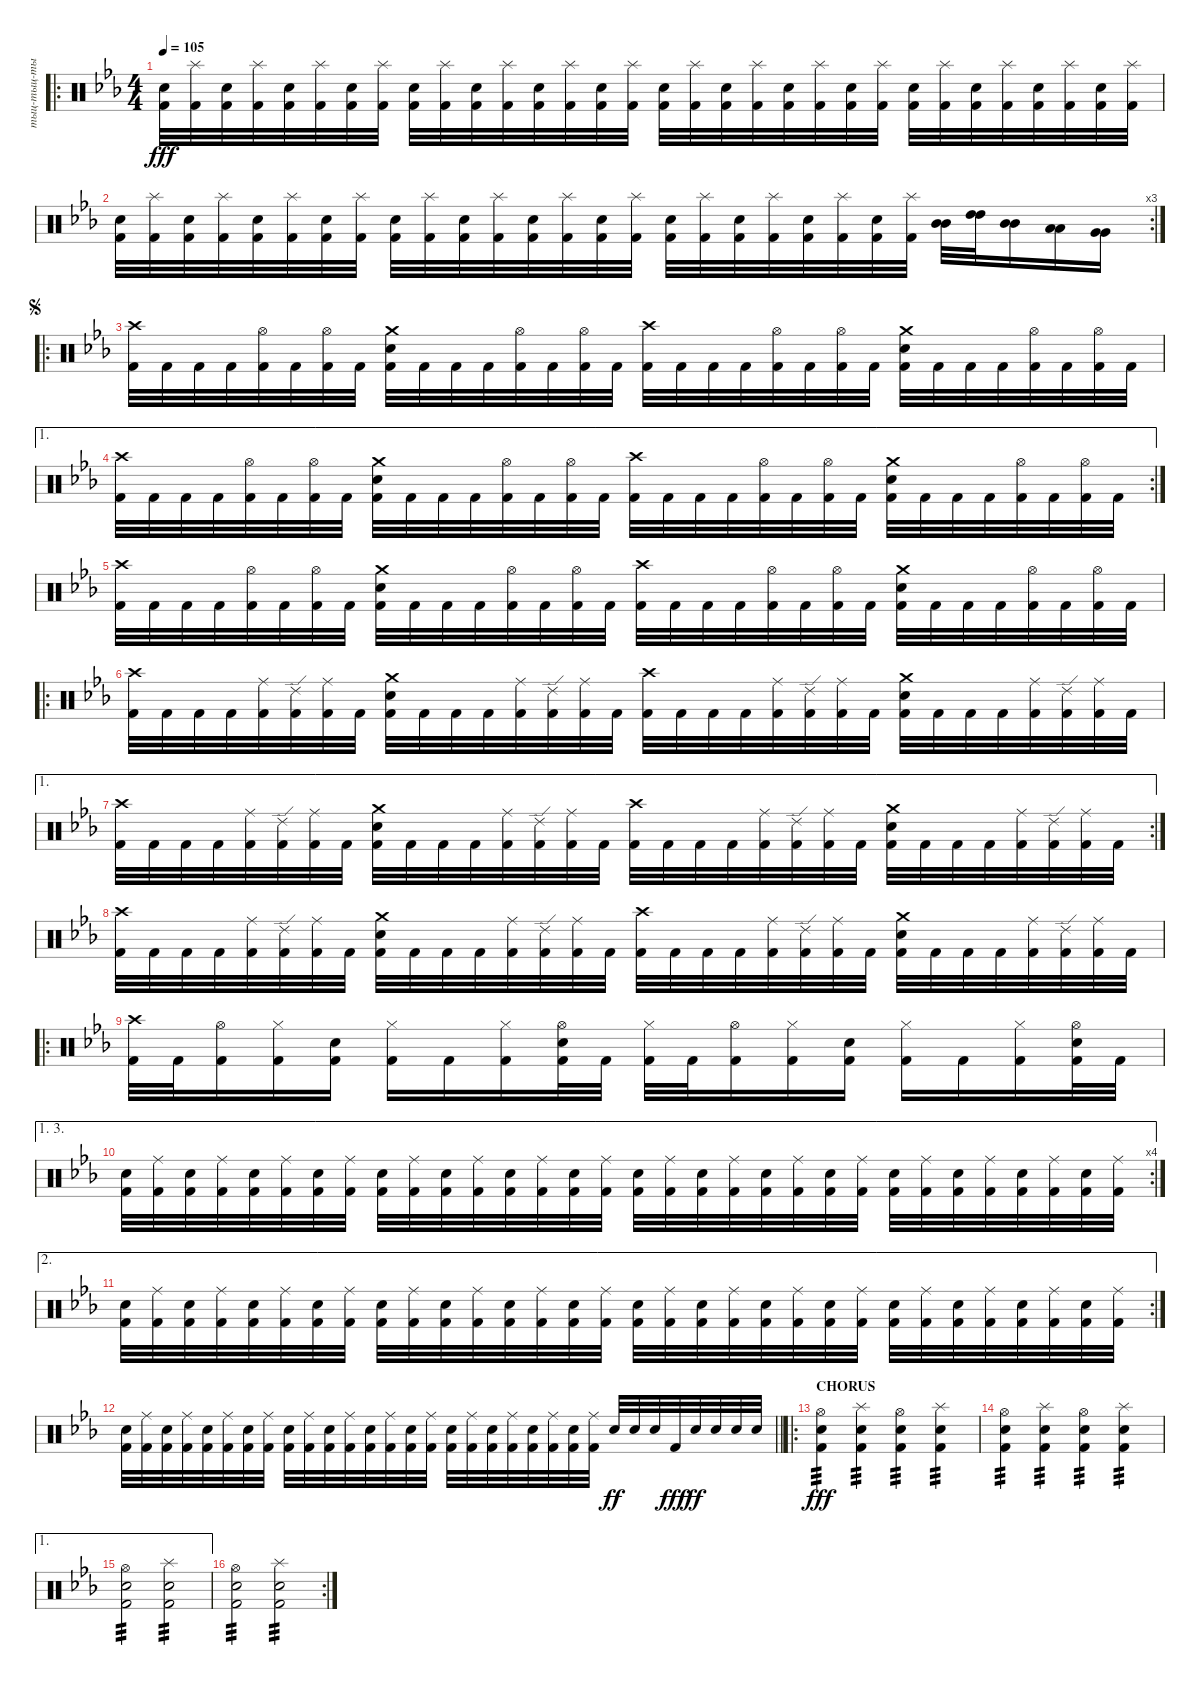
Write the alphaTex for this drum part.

\track ("тыц-тыц-тыц..." "тыц-тыц-ты") {instrument percussion}
\staff
\articulation defaults
\ro
\ts (4 4)
\tempo 105
\clef neutral
\ks cminor
("Electric Snare (hit)" "Kick (hit) 2").32{dy fff} ("Splash (hit)" "Kick (hit) 2").32 ("Electric Snare (hit)" "Kick (hit) 2").32 ("Splash (hit)" "Kick (hit) 2").32 ("Electric Snare (hit)" "Kick (hit) 2").32 ("Splash (hit)" "Kick (hit) 2").32 ("Electric Snare (hit)" "Kick (hit) 2").32 ("Splash (hit)" "Kick (hit) 2").32 ("Electric Snare (hit)" "Kick (hit) 2").32 ("Splash (hit)" "Kick (hit) 2").32 ("Electric Snare (hit)" "Kick (hit) 2").32 ("Splash (hit)" "Kick (hit) 2").32 ("Electric Snare (hit)" "Kick (hit) 2").32 ("Splash (hit)" "Kick (hit) 2").32 ("Electric Snare (hit)" "Kick (hit) 2").32 ("Splash (hit)" "Kick (hit) 2").32 ("Electric Snare (hit)" "Kick (hit) 2").32 ("Splash (hit)" "Kick (hit) 2").32 ("Electric Snare (hit)" "Kick (hit) 2").32 ("Splash (hit)" "Kick (hit) 2").32 ("Electric Snare (hit)" "Kick (hit) 2").32 ("Splash (hit)" "Kick (hit) 2").32 ("Electric Snare (hit)" "Kick (hit) 2").32 ("Splash (hit)" "Kick (hit) 2").32 ("Electric Snare (hit)" "Kick (hit) 2").32 ("Splash (hit)" "Kick (hit) 2").32 ("Electric Snare (hit)" "Kick (hit) 2").32 ("Splash (hit)" "Kick (hit) 2").32 ("Electric Snare (hit)" "Kick (hit) 2").32 ("Splash (hit)" "Kick (hit) 2").32 ("Electric Snare (hit)" "Kick (hit) 2").32 ("Splash (hit)" "Kick (hit) 2").32 |
\rc 3
("Electric Snare (hit)" "Kick (hit) 2").32 ("Splash (hit)" "Kick (hit) 2").32 ("Electric Snare (hit)" "Kick (hit) 2").32 ("Splash (hit)" "Kick (hit) 2").32 ("Electric Snare (hit)" "Kick (hit) 2").32 ("Splash (hit)" "Kick (hit) 2").32 ("Electric Snare (hit)" "Kick (hit) 2").32 ("Splash (hit)" "Kick (hit) 2").32 ("Electric Snare (hit)" "Kick (hit) 2").32 ("Splash (hit)" "Kick (hit) 2").32 ("Electric Snare (hit)" "Kick (hit) 2").32 ("Splash (hit)" "Kick (hit) 2").32 ("Electric Snare (hit)" "Kick (hit) 2").32 ("Splash (hit)" "Kick (hit) 2").32 ("Electric Snare (hit)" "Kick (hit) 2").32 ("Splash (hit)" "Kick (hit) 2").32 ("Electric Snare (hit)" "Kick (hit) 2").32 ("Splash (hit)" "Kick (hit) 2").32 ("Electric Snare (hit)" "Kick (hit) 2").32 ("Splash (hit)" "Kick (hit) 2").32 ("Electric Snare (hit)" "Kick (hit) 2").32 ("Splash (hit)" "Kick (hit) 2").32 ("Electric Snare (hit)" "Kick (hit) 2").32 ("Splash (hit)" "Kick (hit) 2").32 ("Mid Tom (hit)" "Mid Tom (hit)").32 ("High Tom (hit)" "High Tom (hit)").32 ("Mid Tom (hit)" "Mid Tom (hit)").16 ("Low Tom (hit)" "Low Tom (hit)").16 ("Very Low Tom (hit)" "Very Low Tom (hit)").16 |
\ro
\jump segno
("Crash high (hit)" "Kick (hit) 2").32 "Kick (hit) 2".32 "Kick (hit) 2".32 "Kick (hit) 2".32 ("Hi-Hat (open)" "Kick (hit) 2").32 "Kick (hit) 2".32 ("Hi-Hat (open)" "Kick (hit) 2").32 "Kick (hit) 2".32 ("Crash medium (hit)" "Electric Snare (hit)" "Kick (hit) 2").32 "Kick (hit) 2".32 "Kick (hit) 2".32 "Kick (hit) 2".32 ("Hi-Hat (open)" "Kick (hit) 2").32 "Kick (hit) 2".32 ("Hi-Hat (open)" "Kick (hit) 2").32 "Kick (hit) 2".32 ("Crash high (hit)" "Kick (hit) 2").32 "Kick (hit) 2".32 "Kick (hit) 2".32 "Kick (hit) 2".32 ("Hi-Hat (open)" "Kick (hit) 2").32 "Kick (hit) 2".32 ("Hi-Hat (open)" "Kick (hit) 2").32 "Kick (hit) 2".32 ("Crash medium (hit)" "Electric Snare (hit)" "Kick (hit) 2").32 "Kick (hit) 2".32 "Kick (hit) 2".32 "Kick (hit) 2".32 ("Hi-Hat (open)" "Kick (hit) 2").32 "Kick (hit) 2".32 ("Hi-Hat (open)" "Kick (hit) 2").32 "Kick (hit) 2".32 |
\ae 1
\rc 2
("Crash high (hit)" "Kick (hit) 2").32 "Kick (hit) 2".32 "Kick (hit) 2".32 "Kick (hit) 2".32 ("Hi-Hat (open)" "Kick (hit) 2").32 "Kick (hit) 2".32 ("Hi-Hat (open)" "Kick (hit) 2").32 "Kick (hit) 2".32 ("Crash medium (hit)" "Electric Snare (hit)" "Kick (hit) 2").32 "Kick (hit) 2".32 "Kick (hit) 2".32 "Kick (hit) 2".32 ("Hi-Hat (open)" "Kick (hit) 2").32 "Kick (hit) 2".32 ("Hi-Hat (open)" "Kick (hit) 2").32 "Kick (hit) 2".32 ("Crash high (hit)" "Kick (hit) 2").32 "Kick (hit) 2".32 "Kick (hit) 2".32 "Kick (hit) 2".32 ("Hi-Hat (open)" "Kick (hit) 2").32 "Kick (hit) 2".32 ("Hi-Hat (open)" "Kick (hit) 2").32 "Kick (hit) 2".32 ("Crash medium (hit)" "Electric Snare (hit)" "Kick (hit) 2").32 "Kick (hit) 2".32 "Kick (hit) 2".32 "Kick (hit) 2".32 ("Hi-Hat (open)" "Kick (hit) 2").32 "Kick (hit) 2".32 ("Hi-Hat (open)" "Kick (hit) 2").32 "Kick (hit) 2".32 |
("Crash high (hit)" "Kick (hit) 2").32 "Kick (hit) 2".32 "Kick (hit) 2".32 "Kick (hit) 2".32 ("Hi-Hat (open)" "Kick (hit) 2").32 "Kick (hit) 2".32 ("Hi-Hat (open)" "Kick (hit) 2").32 "Kick (hit) 2".32 ("Crash medium (hit)" "Electric Snare (hit)" "Kick (hit) 2").32 "Kick (hit) 2".32 "Kick (hit) 2".32 "Kick (hit) 2".32 ("Hi-Hat (open)" "Kick (hit) 2").32 "Kick (hit) 2".32 ("Hi-Hat (open)" "Kick (hit) 2").32 "Kick (hit) 2".32 ("Crash high (hit)" "Kick (hit) 2").32 "Kick (hit) 2".32 "Kick (hit) 2".32 "Kick (hit) 2".32 ("Hi-Hat (open)" "Kick (hit) 2").32 "Kick (hit) 2".32 ("Hi-Hat (open)" "Kick (hit) 2").32 "Kick (hit) 2".32 ("Crash medium (hit)" "Electric Snare (hit)" "Kick (hit) 2").32 "Kick (hit) 2".32 "Kick (hit) 2".32 "Kick (hit) 2".32 ("Hi-Hat (open)" "Kick (hit) 2").32 "Kick (hit) 2".32 ("Hi-Hat (open)" "Kick (hit) 2").32 "Kick (hit) 2".32 |
\ro
("Crash high (hit)" "Kick (hit) 2").32 "Kick (hit) 2".32 "Kick (hit) 2".32 "Kick (hit) 2".32 ("Ride (middle)" "Kick (hit) 2").32 ("Ride (edge) 2" "Kick (hit) 2").32 ("Ride (middle)" "Kick (hit) 2").32 "Kick (hit) 2".32 ("Crash medium (hit)" "Electric Snare (hit)" "Kick (hit) 2").32 "Kick (hit) 2".32 "Kick (hit) 2".32 "Kick (hit) 2".32 ("Ride (middle)" "Kick (hit) 2").32 ("Ride (edge) 2" "Kick (hit) 2").32 ("Ride (middle)" "Kick (hit) 2").32 "Kick (hit) 2".32 ("Crash high (hit)" "Kick (hit) 2").32 "Kick (hit) 2".32 "Kick (hit) 2".32 "Kick (hit) 2".32 ("Ride (middle)" "Kick (hit) 2").32 ("Ride (edge) 2" "Kick (hit) 2").32 ("Ride (middle)" "Kick (hit) 2").32 "Kick (hit) 2".32 ("Crash medium (hit)" "Electric Snare (hit)" "Kick (hit) 2").32 "Kick (hit) 2".32 "Kick (hit) 2".32 "Kick (hit) 2".32 ("Ride (middle)" "Kick (hit) 2").32 ("Ride (edge) 2" "Kick (hit) 2").32 ("Ride (middle)" "Kick (hit) 2").32 "Kick (hit) 2".32 |
\ae 1
\rc 2
("Crash high (hit)" "Kick (hit) 2").32 "Kick (hit) 2".32 "Kick (hit) 2".32 "Kick (hit) 2".32 ("Ride (middle)" "Kick (hit) 2").32 ("Ride (edge) 2" "Kick (hit) 2").32 ("Ride (middle)" "Kick (hit) 2").32 "Kick (hit) 2".32 ("Crash medium (hit)" "Electric Snare (hit)" "Kick (hit) 2").32 "Kick (hit) 2".32 "Kick (hit) 2".32 "Kick (hit) 2".32 ("Ride (middle)" "Kick (hit) 2").32 ("Ride (edge) 2" "Kick (hit) 2").32 ("Ride (middle)" "Kick (hit) 2").32 "Kick (hit) 2".32 ("Crash high (hit)" "Kick (hit) 2").32 "Kick (hit) 2".32 "Kick (hit) 2".32 "Kick (hit) 2".32 ("Ride (middle)" "Kick (hit) 2").32 ("Ride (edge) 2" "Kick (hit) 2").32 ("Ride (middle)" "Kick (hit) 2").32 "Kick (hit) 2".32 ("Crash medium (hit)" "Electric Snare (hit)" "Kick (hit) 2").32 "Kick (hit) 2".32 "Kick (hit) 2".32 "Kick (hit) 2".32 ("Ride (middle)" "Kick (hit) 2").32 ("Ride (edge) 2" "Kick (hit) 2").32 ("Ride (middle)" "Kick (hit) 2").32 "Kick (hit) 2".32 |
("Crash high (hit)" "Kick (hit) 2").32 "Kick (hit) 2".32 "Kick (hit) 2".32 "Kick (hit) 2".32 ("Ride (middle)" "Kick (hit) 2").32 ("Ride (edge) 2" "Kick (hit) 2").32 ("Ride (middle)" "Kick (hit) 2").32 "Kick (hit) 2".32 ("Crash medium (hit)" "Electric Snare (hit)" "Kick (hit) 2").32 "Kick (hit) 2".32 "Kick (hit) 2".32 "Kick (hit) 2".32 ("Ride (middle)" "Kick (hit) 2").32 ("Ride (edge) 2" "Kick (hit) 2").32 ("Ride (middle)" "Kick (hit) 2").32 "Kick (hit) 2".32 ("Crash high (hit)" "Kick (hit) 2").32 "Kick (hit) 2".32 "Kick (hit) 2".32 "Kick (hit) 2".32 ("Ride (middle)" "Kick (hit) 2").32 ("Ride (edge) 2" "Kick (hit) 2").32 ("Ride (middle)" "Kick (hit) 2").32 "Kick (hit) 2".32 ("Crash medium (hit)" "Electric Snare (hit)" "Kick (hit) 2").32 "Kick (hit) 2".32 "Kick (hit) 2".32 "Kick (hit) 2".32 ("Ride (middle)" "Kick (hit) 2").32 ("Ride (edge) 2" "Kick (hit) 2").32 ("Ride (middle)" "Kick (hit) 2").32 "Kick (hit) 2".32 |
\ro
("Crash high (hit)" "Kick (hit) 2").32 "Kick (hit) 2".32 ("Hi-Hat (open)" "Kick (hit) 2").16 ("Hi-Hat (closed)" "Kick (hit) 2").16 ("Electric Snare (hit)" "Kick (hit) 2").16 ("Hi-Hat (closed)" "Kick (hit) 2").16 "Kick (hit) 2".16 ("Hi-Hat (closed)" "Kick (hit) 2").16 ("Hi-Hat (open)" "Electric Snare (hit)" "Kick (hit) 2").32 "Kick (hit) 2".32 ("Hi-Hat (closed)" "Kick (hit) 2").32 "Kick (hit) 2".32 ("Hi-Hat (open)" "Kick (hit) 2").16 ("Hi-Hat (closed)" "Kick (hit) 2").16 ("Electric Snare (hit)" "Kick (hit) 2").16 ("Hi-Hat (closed)" "Kick (hit) 2").16 "Kick (hit) 2".16 ("Hi-Hat (closed)" "Kick (hit) 2").16 ("Hi-Hat (open)" "Electric Snare (hit)" "Kick (hit) 2").32 "Kick (hit) 2".32 |
\ae (1 3)
\rc 4
("Electric Snare (hit)" "Kick (hit) 2").32 ("Ride (middle)" "Kick (hit) 2").32 ("Electric Snare (hit)" "Kick (hit) 2").32 ("Ride (middle)" "Kick (hit) 2").32 ("Electric Snare (hit)" "Kick (hit) 2").32 ("Ride (middle)" "Kick (hit) 2").32 ("Electric Snare (hit)" "Kick (hit) 2").32 ("Ride (middle)" "Kick (hit) 2").32 ("Electric Snare (hit)" "Kick (hit) 2").32 ("Ride (middle)" "Kick (hit) 2").32 ("Electric Snare (hit)" "Kick (hit) 2").32 ("Ride (middle)" "Kick (hit) 2").32 ("Electric Snare (hit)" "Kick (hit) 2").32 ("Ride (middle)" "Kick (hit) 2").32 ("Electric Snare (hit)" "Kick (hit) 2").32 ("Ride (middle)" "Kick (hit) 2").32 ("Electric Snare (hit)" "Kick (hit) 2").32 ("Ride (middle)" "Kick (hit) 2").32 ("Electric Snare (hit)" "Kick (hit) 2").32 ("Ride (middle)" "Kick (hit) 2").32 ("Electric Snare (hit)" "Kick (hit) 2").32 ("Ride (middle)" "Kick (hit) 2").32 ("Electric Snare (hit)" "Kick (hit) 2").32 ("Ride (middle)" "Kick (hit) 2").32 ("Electric Snare (hit)" "Kick (hit) 2").32 ("Ride (middle)" "Kick (hit) 2").32 ("Electric Snare (hit)" "Kick (hit) 2").32 ("Ride (middle)" "Kick (hit) 2").32 ("Electric Snare (hit)" "Kick (hit) 2").32 ("Ride (middle)" "Kick (hit) 2").32 ("Electric Snare (hit)" "Kick (hit) 2").32 ("Ride (middle)" "Kick (hit) 2").32 |
\ae 2
\rc 2
("Electric Snare (hit)" "Kick (hit) 2").32 ("Ride (middle)" "Kick (hit) 2").32 ("Electric Snare (hit)" "Kick (hit) 2").32 ("Ride (middle)" "Kick (hit) 2").32 ("Electric Snare (hit)" "Kick (hit) 2").32 ("Ride (middle)" "Kick (hit) 2").32 ("Electric Snare (hit)" "Kick (hit) 2").32 ("Ride (middle)" "Kick (hit) 2").32 ("Electric Snare (hit)" "Kick (hit) 2").32 ("Ride (middle)" "Kick (hit) 2").32 ("Electric Snare (hit)" "Kick (hit) 2").32 ("Ride (middle)" "Kick (hit) 2").32 ("Electric Snare (hit)" "Kick (hit) 2").32 ("Ride (middle)" "Kick (hit) 2").32 ("Electric Snare (hit)" "Kick (hit) 2").32 ("Ride (middle)" "Kick (hit) 2").32 ("Electric Snare (hit)" "Kick (hit) 2").32 ("Ride (middle)" "Kick (hit) 2").32 ("Electric Snare (hit)" "Kick (hit) 2").32 ("Ride (middle)" "Kick (hit) 2").32 ("Electric Snare (hit)" "Kick (hit) 2").32 ("Ride (middle)" "Kick (hit) 2").32 ("Electric Snare (hit)" "Kick (hit) 2").32 ("Ride (middle)" "Kick (hit) 2").32 ("Electric Snare (hit)" "Kick (hit) 2").32 ("Ride (middle)" "Kick (hit) 2").32 ("Electric Snare (hit)" "Kick (hit) 2").32 ("Ride (middle)" "Kick (hit) 2").32 ("Electric Snare (hit)" "Kick (hit) 2").32 ("Ride (middle)" "Kick (hit) 2").32 ("Electric Snare (hit)" "Kick (hit) 2").32 ("Ride (middle)" "Kick (hit) 2").32 |
\barLineRight lightlight
("Electric Snare (hit)" "Kick (hit) 2").32 ("Ride (middle)" "Kick (hit) 2").32 ("Electric Snare (hit)" "Kick (hit) 2").32 ("Ride (middle)" "Kick (hit) 2").32 ("Electric Snare (hit)" "Kick (hit) 2").32 ("Ride (middle)" "Kick (hit) 2").32 ("Electric Snare (hit)" "Kick (hit) 2").32 ("Ride (middle)" "Kick (hit) 2").32 ("Electric Snare (hit)" "Kick (hit) 2").32 ("Ride (middle)" "Kick (hit) 2").32 ("Electric Snare (hit)" "Kick (hit) 2").32 ("Ride (middle)" "Kick (hit) 2").32 ("Electric Snare (hit)" "Kick (hit) 2").32 ("Ride (middle)" "Kick (hit) 2").32 ("Electric Snare (hit)" "Kick (hit) 2").32 ("Ride (middle)" "Kick (hit) 2").32 ("Electric Snare (hit)" "Kick (hit) 2").32 ("Ride (middle)" "Kick (hit) 2").32 ("Electric Snare (hit)" "Kick (hit) 2").32 ("Ride (middle)" "Kick (hit) 2").32 ("Electric Snare (hit)" "Kick (hit) 2").32 ("Ride (middle)" "Kick (hit) 2").32 ("Electric Snare (hit)" "Kick (hit) 2").32 ("Ride (middle)" "Kick (hit) 2").32 "Electric Snare (hit)".32{dy ff} "Electric Snare (hit)".32 "Electric Snare (hit)".32 "Kick (hit) 2".32{dy fff} "Electric Snare (hit)".32{dy ff} "Electric Snare (hit)".32 "Electric Snare (hit)".32 "Electric Snare (hit)".32 |
\ro
\section ("" "CHORUS")
("Hi-Hat (open)" "Electric Snare (hit)" "Kick (hit) 2").4{tp 3 dy fff} ("Splash (hit)" "Electric Snare (hit)" "Kick (hit) 2").4{tp 3} ("Hi-Hat (open)" "Electric Snare (hit)" "Kick (hit) 2").4{tp 3} ("Splash (hit)" "Electric Snare (hit)" "Kick (hit) 2").4{tp 3} |
("Hi-Hat (open)" "Electric Snare (hit)" "Kick (hit) 2").4{tp 3} ("Splash (hit)" "Electric Snare (hit)" "Kick (hit) 2").4{tp 3} ("Hi-Hat (open)" "Electric Snare (hit)" "Kick (hit) 2").4{tp 3} ("Splash (hit)" "Electric Snare (hit)" "Kick (hit) 2").4{tp 3} |
\ae 1
("Hi-Hat (open)" "Electric Snare (hit)" "Kick (hit) 2").2{tp 3} ("Splash (hit)" "Electric Snare (hit)" "Kick (hit) 2").2{tp 3} |
\rc 2
("Hi-Hat (open)" "Electric Snare (hit)" "Kick (hit) 2").2{tp 3} ("Splash (hit)" "Electric Snare (hit)" "Kick (hit) 2").2{tp 3}
